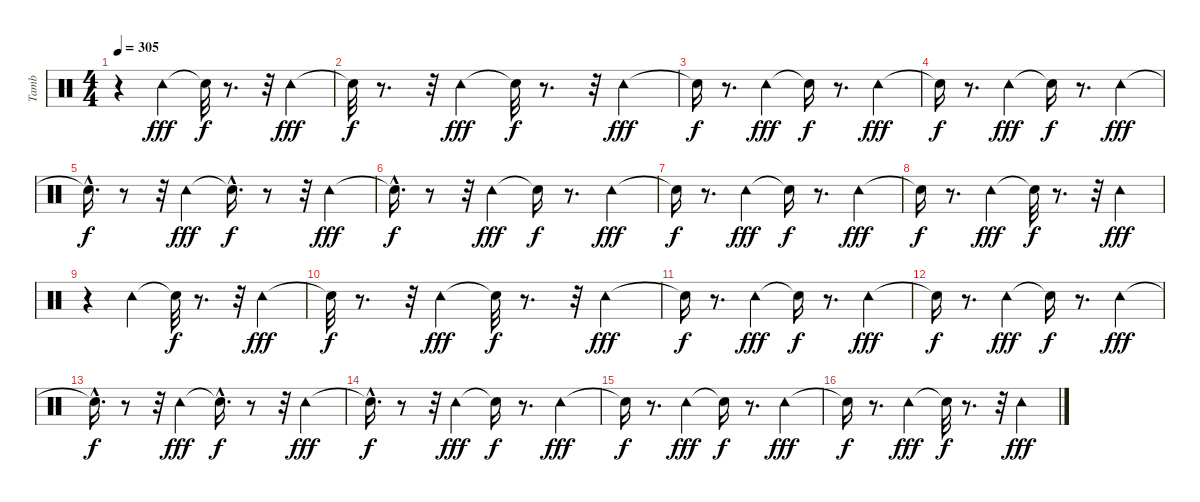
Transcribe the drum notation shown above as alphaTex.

\track ("Tamb" "Tamb") {instrument percussion}
\staff {score}
\articulation defaults
\ts (4 4)
\tempo 305
\clef neutral
\ks c
r.4{dy fff} "Tambourine (hit)".4 "Snare (hit)"{t}.32{dy f} r.8{d} r.32 "Tambourine (hit)".4{dy fff} |
"Snare (hit)"{t}.32{dy f} r.8{d} r.32 "Tambourine (hit)".4{dy fff} "Snare (hit)"{t}.32{dy f} r.8{d} r.32 "Tambourine (hit)".4{dy fff} |
"Snare (hit)"{t}.16{dy f} r.8{d} "Tambourine (hit)".4{dy fff} "Snare (hit)"{t}.16{dy f} r.8{d} "Tambourine (hit)".4{dy fff} |
"Snare (hit)"{t}.16{dy f} r.8{d} "Tambourine (hit)".4{dy fff} "Snare (hit)"{t}.16{dy f} r.8{d} "Tambourine (hit)".4{dy fff} |
"Snare (hit)"{hac t}.16{d dy f} r.8 r.32 "Tambourine (hit)".4{dy fff} "Snare (hit)"{hac t}.16{d dy f} r.8 r.32 "Tambourine (hit)".4{dy fff} |
"Snare (hit)"{hac t}.16{d dy f} r.8 r.32 "Tambourine (hit)".4{dy fff} "Snare (hit)"{t}.16{dy f} r.8{d} "Tambourine (hit)".4{dy fff} |
"Snare (hit)"{t}.16{dy f} r.8{d} "Tambourine (hit)".4{dy fff} "Snare (hit)"{t}.16{dy f} r.8{d} "Tambourine (hit)".4{dy fff} |
"Snare (hit)"{t}.16{dy f} r.8{d} "Tambourine (hit)".4{dy fff} "Snare (hit)"{t}.32{dy f} r.8{d} r.32 "Tambourine (hit)".4{dy fff} |
r.4 "Tambourine (hit)".4 "Snare (hit)"{t}.32{dy f} r.8{d} r.32 "Tambourine (hit)".4{dy fff} |
"Snare (hit)"{t}.32{dy f} r.8{d} r.32 "Tambourine (hit)".4{dy fff} "Snare (hit)"{t}.32{dy f} r.8{d} r.32 "Tambourine (hit)".4{dy fff} |
"Snare (hit)"{t}.16{dy f} r.8{d} "Tambourine (hit)".4{dy fff} "Snare (hit)"{t}.16{dy f} r.8{d} "Tambourine (hit)".4{dy fff} |
"Snare (hit)"{t}.16{dy f} r.8{d} "Tambourine (hit)".4{dy fff} "Snare (hit)"{t}.16{dy f} r.8{d} "Tambourine (hit)".4{dy fff} |
"Snare (hit)"{hac t}.16{d dy f} r.8 r.32 "Tambourine (hit)".4{dy fff} "Snare (hit)"{hac t}.16{d dy f} r.8 r.32 "Tambourine (hit)".4{dy fff} |
"Snare (hit)"{hac t}.16{d dy f} r.8 r.32 "Tambourine (hit)".4{dy fff} "Snare (hit)"{t}.16{dy f} r.8{d} "Tambourine (hit)".4{dy fff} |
"Snare (hit)"{t}.16{dy f} r.8{d} "Tambourine (hit)".4{dy fff} "Snare (hit)"{t}.16{dy f} r.8{d} "Tambourine (hit)".4{dy fff} |
"Snare (hit)"{t}.16{dy f} r.8{d} "Tambourine (hit)".4{dy fff} "Snare (hit)"{t}.32{dy f} r.8{d} r.32 "Tambourine (hit)".4{dy fff}
